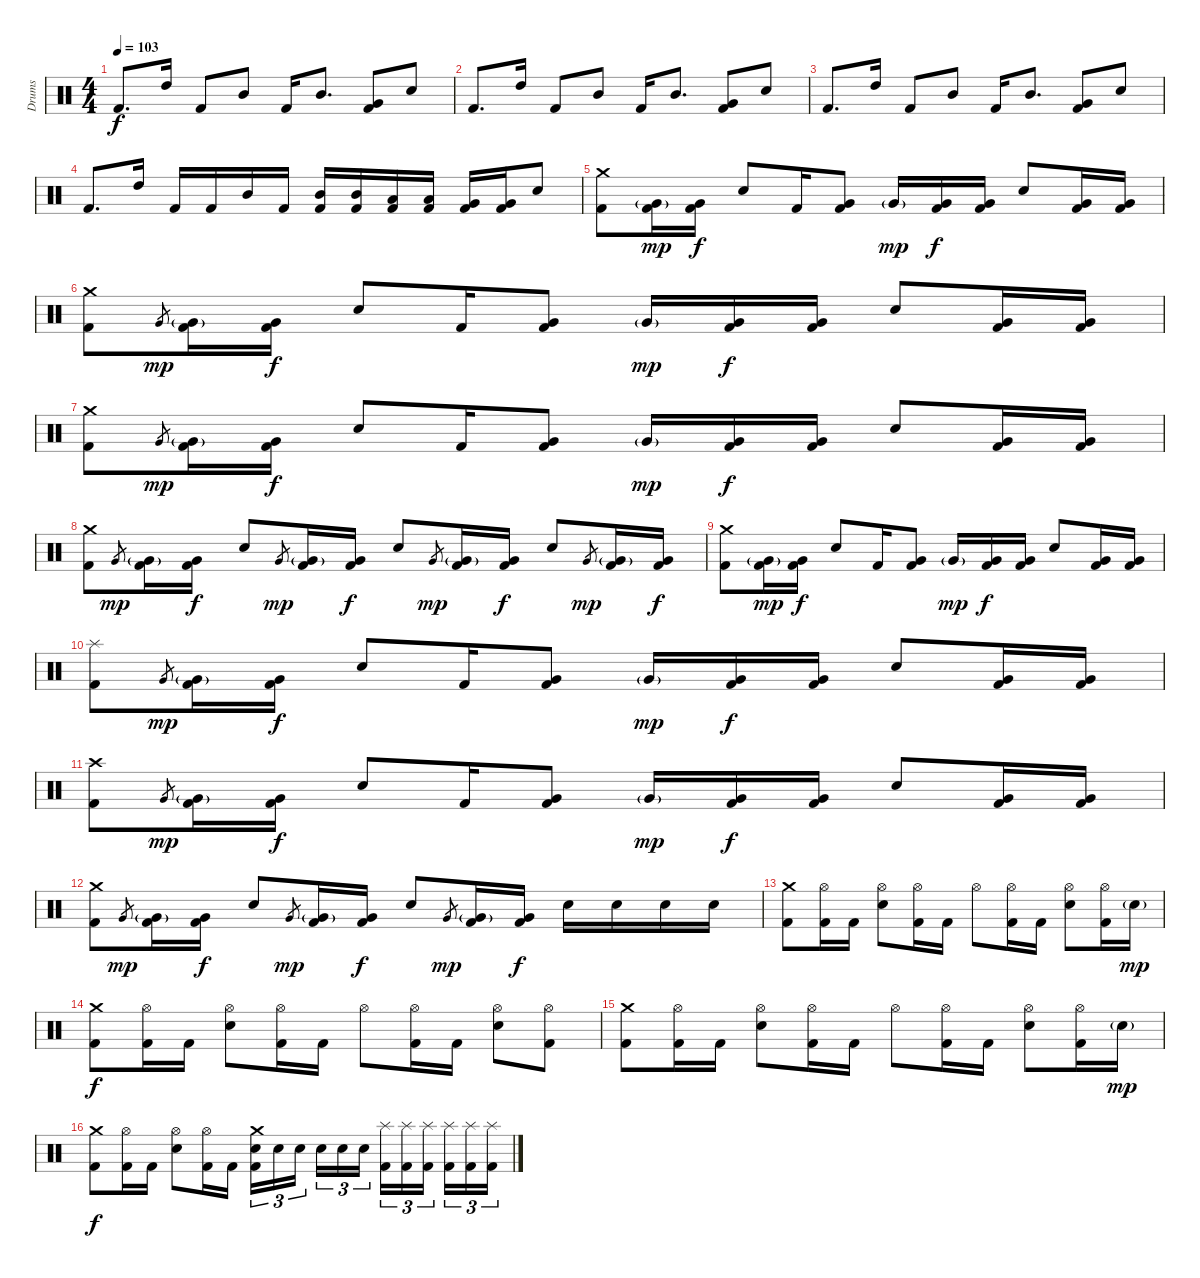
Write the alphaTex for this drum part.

\track ("Drums" "Drums") {instrument percussion}
\staff {score}
\articulation defaults
\ts (4 4)
\tempo 103
\clef neutral
\ks c "Kick (hit) 2".8{d dy f} "High Tom (hit)".16 "Kick (hit) 2".8 "Mid Tom (hit)".8 "Kick (hit) 2".16 "Mid Tom (hit)".8{d}
("Very Low Tom (hit)" "Kick (hit) 2").8 "Snare (hit) 2".8 |
"Kick (hit) 2".8{d} "High Tom (hit)".16 "Kick (hit) 2".8 "Mid Tom (hit)".8 "Kick (hit) 2".16 "Mid Tom (hit)".8{d} ("Very Low Tom (hit)" "Kick (hit) 2").8 "Snare (hit) 2".8 |
"Kick (hit) 2".8{d} "High Tom (hit)".16 "Kick (hit) 2".8 "Mid Tom (hit)".8 "Kick (hit) 2".16 "Mid Tom (hit)".8{d} ("Very Low Tom (hit)" "Kick (hit) 2").8 "Snare (hit) 2".8 |
"Kick (hit) 2".8{d} "High Tom (hit)".16 "Kick (hit) 2".16 "Kick (hit) 2".16 "Mid Tom (hit)".16 "Kick (hit) 2".16 ("Mid Tom (hit)" "Kick (hit) 2").16 ("Mid Tom (hit)" "Kick (hit) 2").16 ("Low Tom (hit)" "Kick (hit) 2").16 ("Low Tom (hit)" "Kick (hit) 2").16 ("Very Low Tom (hit)" "Kick (hit) 2").16 ("Very Low Tom (hit)" "Kick (hit) 2").16 "Snare (hit) 2".8 |
("Crash medium (hit)" "Kick (hit) 2").8 ("Very Low Tom (hit)"{g} "Kick (hit) 2").16{dy mp} ("Very Low Tom (hit)" "Kick (hit) 2").16{dy f} "Snare (hit) 2".8 "Kick (hit) 2".16 ("Very Low Tom (hit)" "Kick (hit) 2").8 "Very Low Tom (hit)"{g}.16{dy mp} ("Very Low Tom (hit)" "Kick (hit) 2").16{dy f} ("Very Low Tom (hit)" "Kick (hit) 2").16 "Snare (hit) 2".8 ("Very Low Tom (hit)" "Kick (hit) 2").16 ("Very Low Tom (hit)" "Kick (hit) 2").16 |
("Crash medium (hit)" "Kick (hit) 2").8 "Very Low Tom (hit)".8{gr dy mp} ("Very Low Tom (hit)"{g} "Kick (hit) 2").16 ("Very Low Tom (hit)" "Kick (hit) 2").16{dy f} "Snare (hit) 2".8 "Kick (hit) 2".16 ("Very Low Tom (hit)" "Kick (hit) 2").8 "Very Low Tom (hit)"{g}.16{dy mp} ("Very Low Tom (hit)" "Kick (hit) 2").16{dy f} ("Very Low Tom (hit)" "Kick (hit) 2").16 "Snare (hit) 2".8 ("Very Low Tom (hit)" "Kick (hit) 2").16 ("Very Low Tom (hit)" "Kick (hit) 2").16 |
("Crash medium (hit)" "Kick (hit) 2").8 "Very Low Tom (hit)".8{gr dy mp} ("Very Low Tom (hit)"{g} "Kick (hit) 2").16 ("Very Low Tom (hit)" "Kick (hit) 2").16{dy f} "Snare (hit) 2".8 "Kick (hit) 2".16 ("Very Low Tom (hit)" "Kick (hit) 2").8 "Very Low Tom (hit)"{g}.16{dy mp} ("Very Low Tom (hit)" "Kick (hit) 2").16{dy f} ("Very Low Tom (hit)" "Kick (hit) 2").16 "Snare (hit) 2".8 ("Very Low Tom (hit)" "Kick (hit) 2").16 ("Very Low Tom (hit)" "Kick (hit) 2").16 |
("Crash medium (hit)" "Kick (hit) 2").8 "Very Low Tom (hit)".8{gr dy mp} ("Very Low Tom (hit)"{g} "Kick (hit) 2").16 ("Very Low Tom (hit)" "Kick (hit) 2").16{dy f} "Snare (hit) 2".8 "Very Low Tom (hit)".8{gr dy mp} ("Very Low Tom (hit)"{g} "Kick (hit) 2").16 ("Very Low Tom (hit)" "Kick (hit) 2").16{dy f} "Snare (hit) 2".8 "Very Low Tom (hit)".8{gr dy mp} ("Very Low Tom (hit)"{g} "Kick (hit) 2").16 ("Very Low Tom (hit)" "Kick (hit) 2").16{dy f} "Snare (hit) 2".8 "Very Low Tom (hit)".8{gr dy mp} ("Very Low Tom (hit)"{g} "Kick (hit) 2").16 ("Very Low Tom (hit)" "Kick (hit) 2").16{dy f} |
("Crash medium (hit)" "Kick (hit) 2").8 ("Very Low Tom (hit)"{g} "Kick (hit) 2").16{dy mp} ("Very Low Tom (hit)" "Kick (hit) 2").16{dy f} "Snare (hit) 2".8 "Kick (hit) 2".16 ("Very Low Tom (hit)" "Kick (hit) 2").8 "Very Low Tom (hit)"{g}.16{dy mp} ("Very Low Tom (hit)" "Kick (hit) 2").16{dy f} ("Very Low Tom (hit)" "Kick (hit) 2").16 "Snare (hit) 2".8 ("Very Low Tom (hit)" "Kick (hit) 2").16 ("Very Low Tom (hit)" "Kick (hit) 2").16 |
("Splash (hit)" "Kick (hit) 2").8 "Very Low Tom (hit)".8{gr dy mp} ("Very Low Tom (hit)"{g} "Kick (hit) 2").16 ("Very Low Tom (hit)" "Kick (hit) 2").16{dy f} "Snare (hit) 2".8 "Kick (hit) 2".16 ("Very Low Tom (hit)" "Kick (hit) 2").8 "Very Low Tom (hit)"{g}.16{dy mp} ("Very Low Tom (hit)" "Kick (hit) 2").16{dy f} ("Very Low Tom (hit)" "Kick (hit) 2").16 "Snare (hit) 2".8 ("Very Low Tom (hit)" "Kick (hit) 2").16 ("Very Low Tom (hit)" "Kick (hit) 2").16 |
("Crash high (hit)" "Kick (hit) 2").8 "Very Low Tom (hit)".8{gr dy mp} ("Very Low Tom (hit)"{g} "Kick (hit) 2").16 ("Very Low Tom (hit)" "Kick (hit) 2").16{dy f} "Snare (hit) 2".8 "Kick (hit) 2".16 ("Very Low Tom (hit)" "Kick (hit) 2").8 "Very Low Tom (hit)"{g}.16{dy mp} ("Very Low Tom (hit)" "Kick (hit) 2").16{dy f} ("Very Low Tom (hit)" "Kick (hit) 2").16 "Snare (hit) 2".8 ("Very Low Tom (hit)" "Kick (hit) 2").16 ("Very Low Tom (hit)" "Kick (hit) 2").16 |
("Crash medium (hit)" "Kick (hit) 2").8 "Very Low Tom (hit)".8{gr dy mp} ("Very Low Tom (hit)"{g} "Kick (hit) 2").16 ("Very Low Tom (hit)" "Kick (hit) 2").16{dy f} "Snare (hit) 2".8 "Very Low Tom (hit)".8{gr dy mp} ("Very Low Tom (hit)"{g} "Kick (hit) 2").16 ("Very Low Tom (hit)" "Kick (hit) 2").16{dy f} "Snare (hit) 2".8 "Very Low Tom (hit)".8{gr dy mp} ("Very Low Tom (hit)"{g} "Kick (hit) 2").16 ("Very Low Tom (hit)" "Kick (hit) 2").16{dy f} "Snare (hit) 2".16 "Snare (hit) 2".16 "Snare (hit) 2".16 "Snare (hit) 2".16 |
("Crash medium (hit)" "Kick (hit) 2").8 ("Hi-Hat (open)" "Kick (hit) 2").16 "Kick (hit) 2".16 ("Hi-Hat (open)" "Snare (hit) 2").8 ("Hi-Hat (open)" "Kick (hit) 2").16 "Kick (hit) 2".16 "Hi-Hat (open)".8 ("Hi-Hat (open)" "Kick (hit) 2").16 "Kick (hit) 2".16 ("Hi-Hat (open)" "Snare (hit) 2").8 ("Hi-Hat (open)" "Kick (hit) 2").16 "Snare (hit) 2"{g}.16{dy mp} |
("Crash medium (hit)" "Kick (hit) 2").8{dy f} ("Hi-Hat (open)" "Kick (hit) 2").16 "Kick (hit) 2".16 ("Hi-Hat (open)" "Snare (hit) 2").8 ("Hi-Hat (open)" "Kick (hit) 2").16 "Kick (hit) 2".16 "Hi-Hat (open)".8 ("Hi-Hat (open)" "Kick (hit) 2").16 "Kick (hit) 2".16 ("Hi-Hat (open)" "Snare (hit) 2").8 ("Hi-Hat (open)" "Kick (hit) 2").8 |
("Crash medium (hit)" "Kick (hit) 2").8 ("Hi-Hat (open)" "Kick (hit) 2").16 "Kick (hit) 2".16 ("Hi-Hat (open)" "Snare (hit) 2").8 ("Hi-Hat (open)" "Kick (hit) 2").16 "Kick (hit) 2".16 "Hi-Hat (open)".8 ("Hi-Hat (open)" "Kick (hit) 2").16 "Kick (hit) 2".16 ("Hi-Hat (open)" "Snare (hit) 2").8 ("Hi-Hat (open)" "Kick (hit) 2").16 "Snare (hit) 2"{g}.16{dy mp} |
("Crash medium (hit)" "Kick (hit) 2").8{dy f} ("Hi-Hat (open)" "Kick (hit) 2").16 "Kick (hit) 2".16 ("Hi-Hat (open)" "Snare (hit) 2").8 ("Hi-Hat (open)" "Kick (hit) 2").16 "Kick (hit) 2".16 ("Crash medium (hit)" "Snare (hit) 2" "Kick (hit) 2").16{tu (3 2)} "Snare (hit) 2".16{tu (3 2)} "Snare (hit) 2".16{tu (3 2) beam splitsecondary} "Snare (hit) 2".16{tu (3 2)} "Snare (hit) 2".16{tu (3 2)} "Snare (hit) 2".16{tu (3 2)} ("Splash (hit)" "Kick (hit) 2").16{tu (3 2)} ("Splash (hit)" "Kick (hit) 2").16{tu (3 2)} ("Splash (hit)" "Kick (hit) 2").16{tu (3 2) beam splitsecondary} ("Splash (hit)" "Kick (hit) 2").16{tu (3 2)} ("Splash (hit)" "Kick (hit) 2").16{tu (3 2)} ("Splash (hit)" "Kick (hit) 2").16{tu (3 2)}
